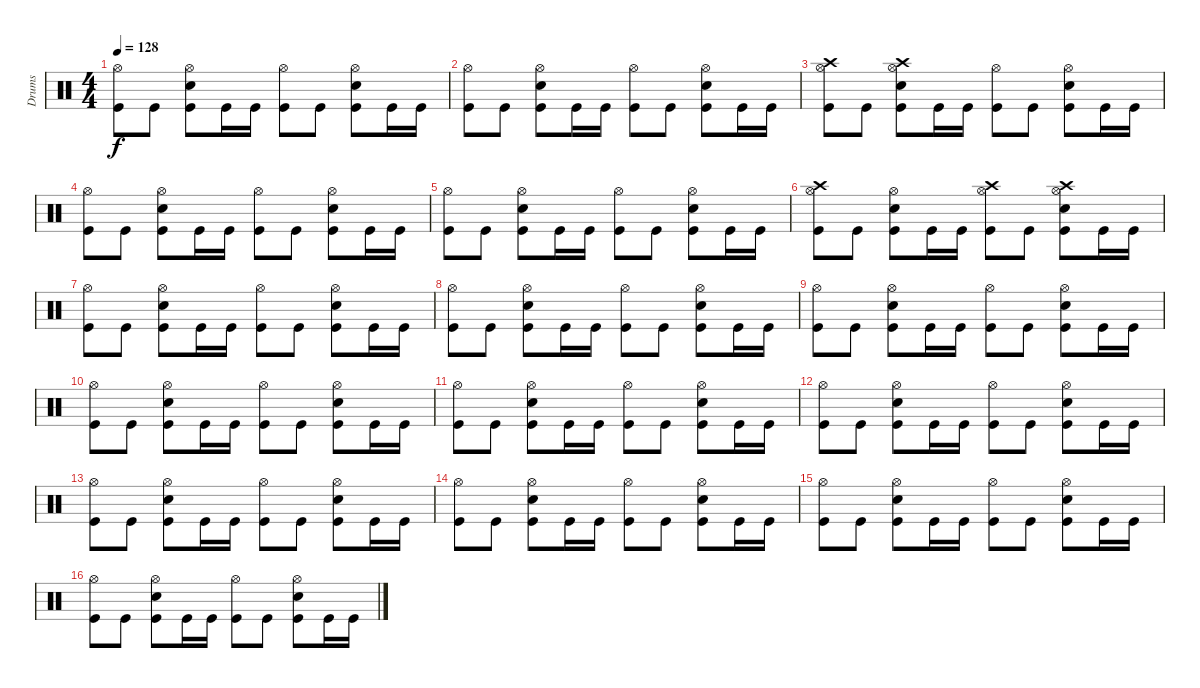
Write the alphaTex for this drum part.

\track ("Drums" "Drums") {instrument percussion}
\staff {score}
\articulation defaults
\ts (4 4)
\tempo 128
\clef neutral
\ks c
("Hi-Hat (open)" "Kick (hit)").8{dy f} "Kick (hit)".8 ("Hi-Hat (open)" "Snare (hit) 2" "Kick (hit)").8 "Kick (hit)".16 "Kick (hit)".16 ("Hi-Hat (open)" "Kick (hit)").8 "Kick (hit)".8 ("Hi-Hat (open)" "Snare (hit) 2" "Kick (hit)").8 "Kick (hit)".16 "Kick (hit)".16 |
("Hi-Hat (open)" "Kick (hit)").8 "Kick (hit)".8 ("Hi-Hat (open)" "Snare (hit) 2" "Kick (hit)").8 "Kick (hit)".16 "Kick (hit)".16 ("Hi-Hat (open)" "Kick (hit)").8 "Kick (hit)".8 ("Hi-Hat (open)" "Snare (hit) 2" "Kick (hit)").8 "Kick (hit)".16 "Kick (hit)".16 |
("Crash high (hit)" "Hi-Hat (open)" "Kick (hit)").8 "Kick (hit)".8 ("Crash high (hit)" "Hi-Hat (open)" "Snare (hit) 2" "Kick (hit)").8 "Kick (hit)".16 "Kick (hit)".16 ("Hi-Hat (open)" "Kick (hit)").8 "Kick (hit)".8 ("Hi-Hat (open)" "Snare (hit) 2" "Kick (hit)").8 "Kick (hit)".16 "Kick (hit)".16 |
("Hi-Hat (open)" "Kick (hit)").8 "Kick (hit)".8 ("Hi-Hat (open)" "Snare (hit) 2" "Kick (hit)").8 "Kick (hit)".16 "Kick (hit)".16 ("Hi-Hat (open)" "Kick (hit)").8 "Kick (hit)".8 ("Hi-Hat (open)" "Snare (hit) 2" "Kick (hit)").8 "Kick (hit)".16 "Kick (hit)".16 |
("Hi-Hat (open)" "Kick (hit)").8 "Kick (hit)".8 ("Hi-Hat (open)" "Snare (hit) 2" "Kick (hit)").8 "Kick (hit)".16 "Kick (hit)".16 ("Hi-Hat (open)" "Kick (hit)").8 "Kick (hit)".8 ("Hi-Hat (open)" "Snare (hit) 2" "Kick (hit)").8 "Kick (hit)".16 "Kick (hit)".16 |
("Crash high (hit)" "Hi-Hat (open)" "Kick (hit)").8 "Kick (hit)".8 ("Hi-Hat (open)" "Snare (hit) 2" "Kick (hit)").8 "Kick (hit)".16 "Kick (hit)".16 ("Crash high (hit)" "Hi-Hat (open)" "Kick (hit)").8 "Kick (hit)".8 ("Crash high (hit)" "Hi-Hat (open)" "Snare (hit) 2" "Kick (hit)").8 "Kick (hit)".16 "Kick (hit)".16 |
("Hi-Hat (open)" "Kick (hit)").8 "Kick (hit)".8 ("Hi-Hat (open)" "Snare (hit) 2" "Kick (hit)").8 "Kick (hit)".16 "Kick (hit)".16 ("Hi-Hat (open)" "Kick (hit)").8 "Kick (hit)".8 ("Hi-Hat (open)" "Snare (hit) 2" "Kick (hit)").8 "Kick (hit)".16 "Kick (hit)".16 |
("Hi-Hat (open)" "Kick (hit)").8 "Kick (hit)".8 ("Hi-Hat (open)" "Snare (hit) 2" "Kick (hit)").8 "Kick (hit)".16 "Kick (hit)".16 ("Hi-Hat (open)" "Kick (hit)").8 "Kick (hit)".8 ("Hi-Hat (open)" "Snare (hit) 2" "Kick (hit)").8 "Kick (hit)".16 "Kick (hit)".16 |
("Hi-Hat (open)" "Kick (hit)").8 "Kick (hit)".8 ("Hi-Hat (open)" "Snare (hit) 2" "Kick (hit)").8 "Kick (hit)".16 "Kick (hit)".16 ("Hi-Hat (open)" "Kick (hit)").8 "Kick (hit)".8 ("Hi-Hat (open)" "Snare (hit) 2" "Kick (hit)").8 "Kick (hit)".16 "Kick (hit)".16 |
("Hi-Hat (open)" "Kick (hit)").8 "Kick (hit)".8 ("Hi-Hat (open)" "Snare (hit) 2" "Kick (hit)").8 "Kick (hit)".16 "Kick (hit)".16 ("Hi-Hat (open)" "Kick (hit)").8 "Kick (hit)".8 ("Hi-Hat (open)" "Snare (hit) 2" "Kick (hit)").8 "Kick (hit)".16 "Kick (hit)".16 |
("Hi-Hat (open)" "Kick (hit)").8 "Kick (hit)".8 ("Hi-Hat (open)" "Snare (hit) 2" "Kick (hit)").8 "Kick (hit)".16 "Kick (hit)".16 ("Hi-Hat (open)" "Kick (hit)").8 "Kick (hit)".8 ("Hi-Hat (open)" "Snare (hit) 2" "Kick (hit)").8 "Kick (hit)".16 "Kick (hit)".16 |
("Hi-Hat (open)" "Kick (hit)").8 "Kick (hit)".8 ("Hi-Hat (open)" "Snare (hit) 2" "Kick (hit)").8 "Kick (hit)".16 "Kick (hit)".16 ("Hi-Hat (open)" "Kick (hit)").8 "Kick (hit)".8 ("Hi-Hat (open)" "Snare (hit) 2" "Kick (hit)").8 "Kick (hit)".16 "Kick (hit)".16 |
("Hi-Hat (open)" "Kick (hit)").8 "Kick (hit)".8 ("Hi-Hat (open)" "Snare (hit) 2" "Kick (hit)").8 "Kick (hit)".16 "Kick (hit)".16 ("Hi-Hat (open)" "Kick (hit)").8 "Kick (hit)".8 ("Hi-Hat (open)" "Snare (hit) 2" "Kick (hit)").8 "Kick (hit)".16 "Kick (hit)".16 |
("Hi-Hat (open)" "Kick (hit)").8 "Kick (hit)".8 ("Hi-Hat (open)" "Snare (hit) 2" "Kick (hit)").8 "Kick (hit)".16 "Kick (hit)".16 ("Hi-Hat (open)" "Kick (hit)").8 "Kick (hit)".8 ("Hi-Hat (open)" "Snare (hit) 2" "Kick (hit)").8 "Kick (hit)".16 "Kick (hit)".16 |
("Hi-Hat (open)" "Kick (hit)").8 "Kick (hit)".8 ("Hi-Hat (open)" "Snare (hit) 2" "Kick (hit)").8 "Kick (hit)".16 "Kick (hit)".16 ("Hi-Hat (open)" "Kick (hit)").8 "Kick (hit)".8 ("Hi-Hat (open)" "Snare (hit) 2" "Kick (hit)").8 "Kick (hit)".16 "Kick (hit)".16 |
("Hi-Hat (open)" "Kick (hit)").8 "Kick (hit)".8 ("Hi-Hat (open)" "Snare (hit) 2" "Kick (hit)").8 "Kick (hit)".16 "Kick (hit)".16 ("Hi-Hat (open)" "Kick (hit)").8 "Kick (hit)".8 ("Hi-Hat (open)" "Snare (hit) 2" "Kick (hit)").8 "Kick (hit)".16 "Kick (hit)".16
